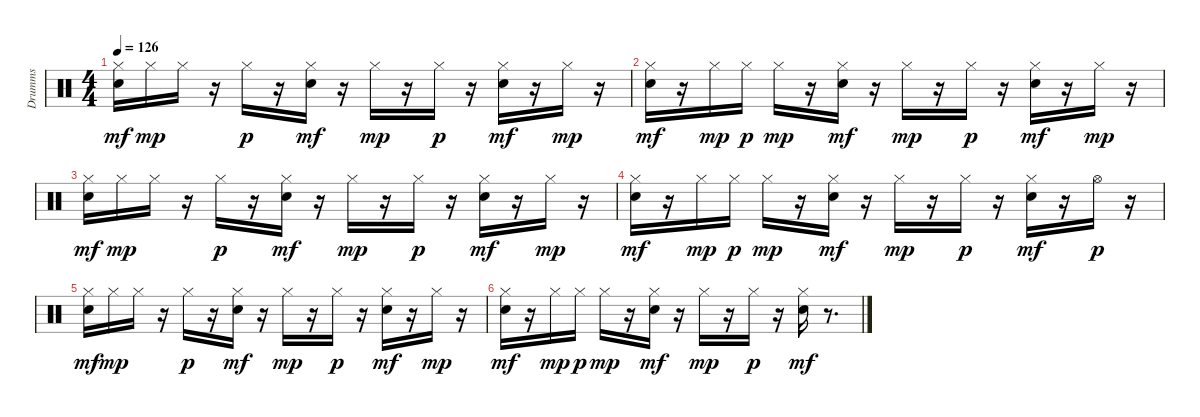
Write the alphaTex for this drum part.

\track ("Drumms" "Drumms") {instrument percussion}
\staff {score}
\articulation defaults
\ts (4 4)
\tempo 126
\clef neutral
\ks c
("Snare (hit) 2" "Hi-Hat (closed)").16{dy mf} "Hi-Hat (closed)".16{dy mp} "Hi-Hat (closed)".16 r.16 "Hi-Hat (closed)".16{dy p} r.16 ("Snare (hit) 2" "Hi-Hat (closed)").16{dy mf} r.16 "Hi-Hat (closed)".16{dy mp} r.16 "Hi-Hat (closed)".16{dy p} r.16 ("Snare (hit) 2" "Hi-Hat (closed)").16{dy mf} r.16 "Hi-Hat (closed)".16{dy mp} r.16 |
("Snare (hit) 2" "Hi-Hat (closed)").16{dy mf} r.16 "Hi-Hat (closed)".16{dy mp} "Hi-Hat (closed)".16{dy p} "Hi-Hat (closed)".16{dy mp} r.16 ("Snare (hit) 2" "Hi-Hat (closed)").16{dy mf} r.16 "Hi-Hat (closed)".16{dy mp} r.16 "Hi-Hat (closed)".16{dy p} r.16 ("Snare (hit) 2" "Hi-Hat (closed)").16{dy mf} r.16 "Hi-Hat (closed)".16{dy mp} r.16 |
("Snare (hit) 2" "Hi-Hat (closed)").16{dy mf} "Hi-Hat (closed)".16{dy mp} "Hi-Hat (closed)".16 r.16 "Hi-Hat (closed)".16{dy p} r.16 ("Snare (hit) 2" "Hi-Hat (closed)").16{dy mf} r.16 "Hi-Hat (closed)".16{dy mp} r.16 "Hi-Hat (closed)".16{dy p} r.16 ("Snare (hit) 2" "Hi-Hat (closed)").16{dy mf} r.16 "Hi-Hat (closed)".16{dy mp} r.16 |
("Snare (hit) 2" "Hi-Hat (closed)").16{dy mf} r.16 "Hi-Hat (closed)".16{dy mp} "Hi-Hat (closed)".16{dy p} "Hi-Hat (closed)".16{dy mp} r.16 ("Snare (hit) 2" "Hi-Hat (closed)").16{dy mf} r.16 "Hi-Hat (closed)".16{dy mp} r.16 "Hi-Hat (closed)".16{dy p} r.16 ("Snare (hit) 2" "Hi-Hat (closed)").16{dy mf} r.16 "Hi-Hat (open)".16{dy p} r.16 |
("Snare (hit) 2" "Hi-Hat (closed)").16{dy mf} "Hi-Hat (closed)".16{dy mp} "Hi-Hat (closed)".16 r.16 "Hi-Hat (closed)".16{dy p} r.16 ("Snare (hit) 2" "Hi-Hat (closed)").16{dy mf} r.16 "Hi-Hat (closed)".16{dy mp} r.16 "Hi-Hat (closed)".16{dy p} r.16 ("Snare (hit) 2" "Hi-Hat (closed)").16{dy mf} r.16 "Hi-Hat (closed)".16{dy mp} r.16 |
("Snare (hit) 2" "Hi-Hat (closed)").16{dy mf} r.16 "Hi-Hat (closed)".16{dy mp} "Hi-Hat (closed)".16{dy p} "Hi-Hat (closed)".16{dy mp} r.16 ("Snare (hit) 2" "Hi-Hat (closed)").16{dy mf} r.16 "Hi-Hat (closed)".16{dy mp} r.16 "Hi-Hat (closed)".16{dy p} r.16 ("Snare (hit) 2" "Hi-Hat (closed)").16{dy mf} r.8{d}
